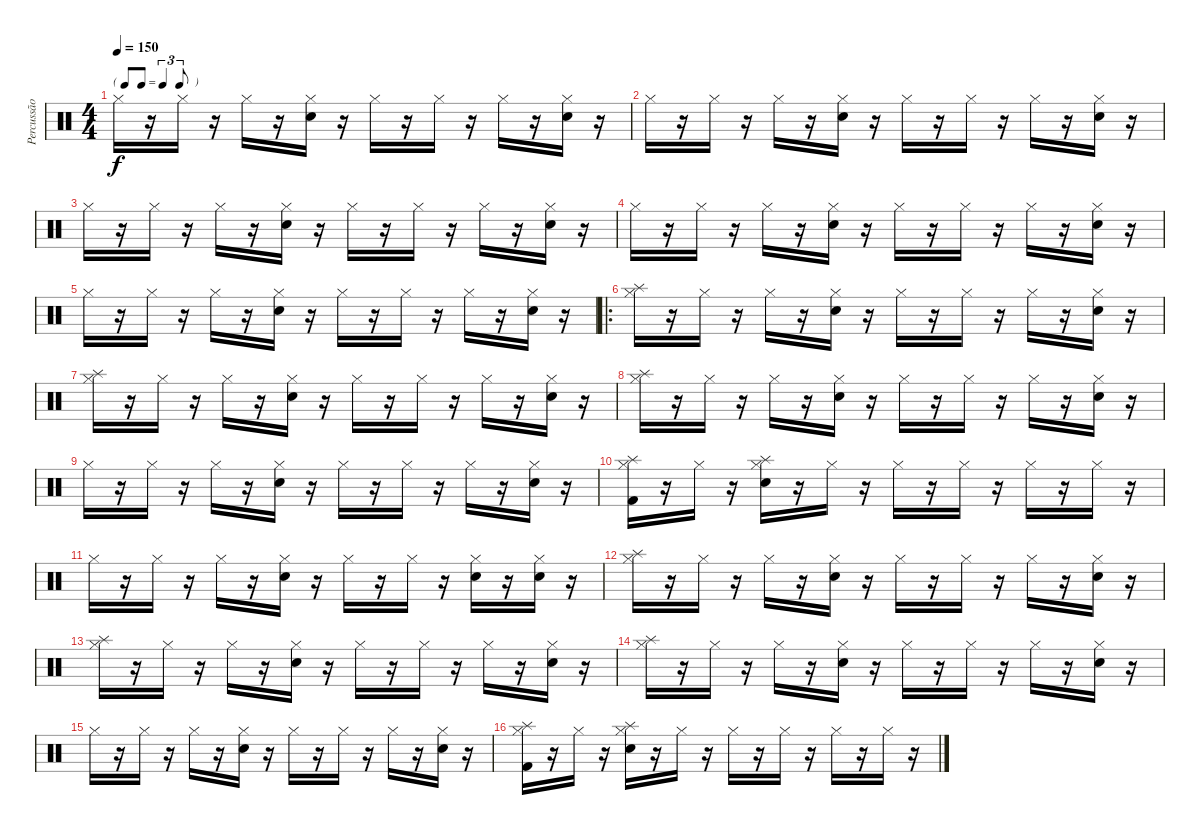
\track ("Percussão" "Percussão") {instrument percussion}
\staff {score}
\articulation defaults
\ts (4 4)
\tf triplet8th
\tempo 150
\clef neutral
\ks c "Hi-Hat (closed)".16{dy f}
r.16 "Hi-Hat (closed)".16 r.16 "Hi-Hat (closed)".16 r.16 ("Hi-Hat (closed)" "Snare (hit) 2").16 r.16 "Hi-Hat (closed)".16 r.16 "Hi-Hat (closed)".16 r.16 "Hi-Hat (closed)".16 r.16 ("Hi-Hat (closed)" "Snare (hit) 2").16 r.16 |
"Hi-Hat (closed)".16 r.16 "Hi-Hat (closed)".16 r.16 "Hi-Hat (closed)".16 r.16 ("Hi-Hat (closed)" "Snare (hit) 2").16 r.16 "Hi-Hat (closed)".16 r.16 "Hi-Hat (closed)".16 r.16 "Hi-Hat (closed)".16 r.16 ("Hi-Hat (closed)" "Snare (hit) 2").16 r.16 |
"Hi-Hat (closed)".16 r.16 "Hi-Hat (closed)".16 r.16 "Hi-Hat (closed)".16 r.16 ("Hi-Hat (closed)" "Snare (hit) 2").16 r.16 "Hi-Hat (closed)".16 r.16 "Hi-Hat (closed)".16 r.16 "Hi-Hat (closed)".16 r.16 ("Hi-Hat (closed)" "Snare (hit) 2").16 r.16 |
"Hi-Hat (closed)".16 r.16 "Hi-Hat (closed)".16 r.16 "Hi-Hat (closed)".16 r.16 ("Hi-Hat (closed)" "Snare (hit) 2").16 r.16 "Hi-Hat (closed)".16 r.16 "Hi-Hat (closed)".16 r.16 "Hi-Hat (closed)".16 r.16 ("Hi-Hat (closed)" "Snare (hit) 2").16 r.16 |
"Hi-Hat (closed)".16 r.16 "Hi-Hat (closed)".16 r.16 "Hi-Hat (closed)".16 r.16 ("Hi-Hat (closed)" "Snare (hit) 2").16 r.16 "Hi-Hat (closed)".16 r.16 "Hi-Hat (closed)".16 r.16 "Hi-Hat (closed)".16 r.16 ("Hi-Hat (closed)" "Snare (hit) 2").16 r.16 |
\ro
("Hi-Hat (closed)" "Splash (hit)").16 r.16 "Hi-Hat (closed)".16 r.16 "Hi-Hat (closed)".16 r.16 ("Hi-Hat (closed)" "Snare (hit) 2").16 r.16 "Hi-Hat (closed)".16 r.16 "Hi-Hat (closed)".16 r.16 "Hi-Hat (closed)".16 r.16 ("Hi-Hat (closed)" "Snare (hit) 2").16 r.16 |
("Hi-Hat (closed)" "Splash (hit)").16 r.16 "Hi-Hat (closed)".16 r.16 "Hi-Hat (closed)".16 r.16 ("Hi-Hat (closed)" "Snare (hit) 2").16 r.16 "Hi-Hat (closed)".16 r.16 "Hi-Hat (closed)".16 r.16 "Hi-Hat (closed)".16 r.16 ("Hi-Hat (closed)" "Snare (hit) 2").16 r.16 |
("Hi-Hat (closed)" "Splash (hit)").16 r.16 "Hi-Hat (closed)".16 r.16 "Hi-Hat (closed)".16 r.16 ("Hi-Hat (closed)" "Snare (hit) 2").16 r.16 "Hi-Hat (closed)".16 r.16 "Hi-Hat (closed)".16 r.16 "Hi-Hat (closed)".16 r.16 ("Hi-Hat (closed)" "Snare (hit) 2").16 r.16 |
"Hi-Hat (closed)".16 r.16 "Hi-Hat (closed)".16 r.16 "Hi-Hat (closed)".16 r.16 ("Hi-Hat (closed)" "Snare (hit) 2").16 r.16 "Hi-Hat (closed)".16 r.16 "Hi-Hat (closed)".16 r.16 "Hi-Hat (closed)".16 r.16 ("Hi-Hat (closed)" "Snare (hit) 2").16 r.16 |
("Hi-Hat (closed)" "Kick (hit) 2" "Splash (hit)").16 r.16 "Hi-Hat (closed)".16 r.16 ("Hi-Hat (closed)" "Snare (hit) 2" "Splash (hit)").16 r.16 "Hi-Hat (closed)".16 r.16 "Hi-Hat (closed)".16 r.16 "Hi-Hat (closed)".16 r.16 "Hi-Hat (closed)".16 r.16 "Hi-Hat (closed)".16 r.16 |
"Hi-Hat (closed)".16 r.16 "Hi-Hat (closed)".16 r.16 "Hi-Hat (closed)".16 r.16 ("Hi-Hat (closed)" "Snare (hit) 2").16 r.16 "Hi-Hat (closed)".16 r.16 "Hi-Hat (closed)".16 r.16 ("Hi-Hat (closed)" "Snare (hit) 2").16 r.16 ("Hi-Hat (closed)" "Snare (hit) 2").16 r.16 |
("Hi-Hat (closed)" "Splash (hit)").16 r.16 "Hi-Hat (closed)".16 r.16 "Hi-Hat (closed)".16 r.16 ("Hi-Hat (closed)" "Snare (hit) 2").16 r.16 "Hi-Hat (closed)".16 r.16 "Hi-Hat (closed)".16 r.16 "Hi-Hat (closed)".16 r.16 ("Hi-Hat (closed)" "Snare (hit) 2").16 r.16 |
("Hi-Hat (closed)" "Splash (hit)").16 r.16 "Hi-Hat (closed)".16 r.16 "Hi-Hat (closed)".16 r.16 ("Hi-Hat (closed)" "Snare (hit) 2").16 r.16 "Hi-Hat (closed)".16 r.16 "Hi-Hat (closed)".16 r.16 "Hi-Hat (closed)".16 r.16 ("Hi-Hat (closed)" "Snare (hit) 2").16 r.16 |
("Hi-Hat (closed)" "Splash (hit)").16 r.16 "Hi-Hat (closed)".16 r.16 "Hi-Hat (closed)".16 r.16 ("Hi-Hat (closed)" "Snare (hit) 2").16 r.16 "Hi-Hat (closed)".16 r.16 "Hi-Hat (closed)".16 r.16 "Hi-Hat (closed)".16 r.16 ("Hi-Hat (closed)" "Snare (hit) 2").16 r.16 |
"Hi-Hat (closed)".16 r.16 "Hi-Hat (closed)".16 r.16 "Hi-Hat (closed)".16 r.16 ("Hi-Hat (closed)" "Snare (hit) 2").16 r.16 "Hi-Hat (closed)".16 r.16 "Hi-Hat (closed)".16 r.16 "Hi-Hat (closed)".16 r.16 ("Hi-Hat (closed)" "Snare (hit) 2").16 r.16 |
("Hi-Hat (closed)" "Kick (hit) 2" "Splash (hit)").16 r.16 "Hi-Hat (closed)".16 r.16 ("Hi-Hat (closed)" "Snare (hit) 2" "Splash (hit)").16 r.16 "Hi-Hat (closed)".16 r.16 "Hi-Hat (closed)".16 r.16 "Hi-Hat (closed)".16 r.16 "Hi-Hat (closed)".16 r.16 "Hi-Hat (closed)".16 r.16
